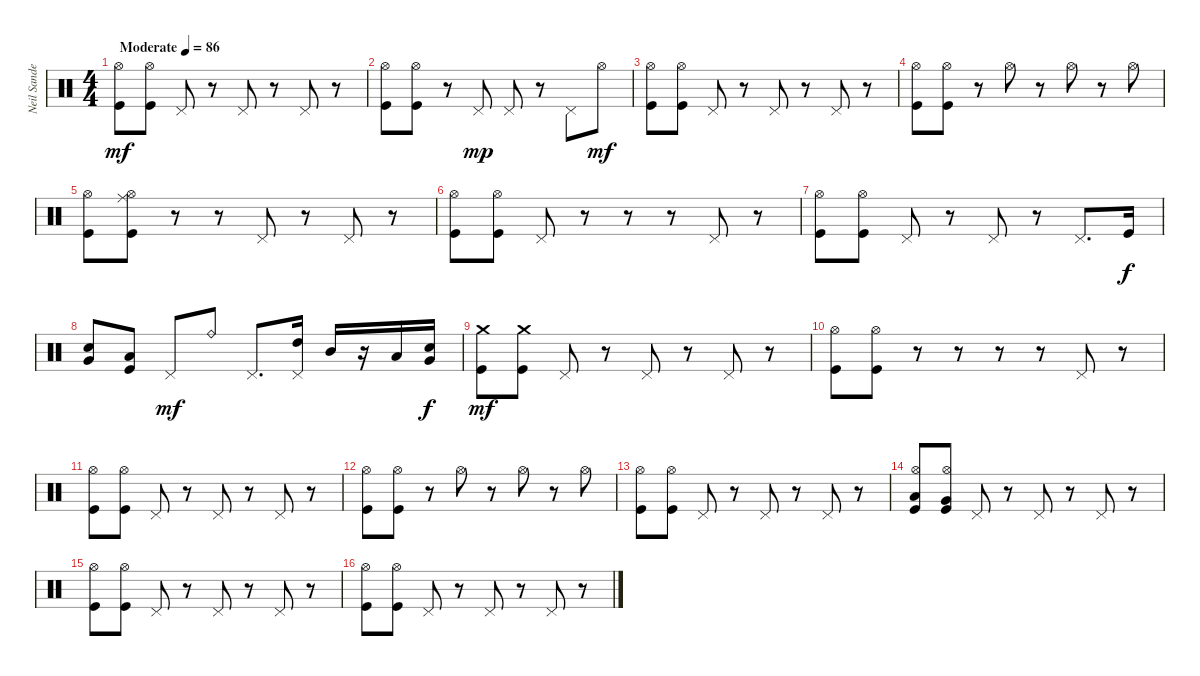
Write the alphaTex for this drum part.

\track ("Neil Sanderson" "Neil Sande") {instrument percussion}
\staff {score}
\articulation defaults
\ts (4 4)
\tempo (86 "Moderate")
\clef neutral
\ks c
("Kick (hit)" "Hi-Hat (open)").8{dy mf} ("Kick (hit)" "Hi-Hat (open)").8 "Pedal Hi-Hat (hit)".8 r.8 "Pedal Hi-Hat (hit)".8 r.8 "Pedal Hi-Hat (hit)".8 r.8 |
("Kick (hit)" "Hi-Hat (open)").8 ("Kick (hit)" "Hi-Hat (open)").8 r.8 "Pedal Hi-Hat (hit)".8{dy mp} "Pedal Hi-Hat (hit)".8 r.8 "Pedal Hi-Hat (hit)".8 "Hi-Hat (open)".8{dy mf} |
("Kick (hit)" "Hi-Hat (open)").8 ("Kick (hit)" "Hi-Hat (open)").8 "Pedal Hi-Hat (hit)".8 r.8 "Pedal Hi-Hat (hit)".8 r.8 "Pedal Hi-Hat (hit)".8 r.8 |
("Kick (hit)" "Hi-Hat (open)").8 ("Kick (hit)" "Hi-Hat (open)").8 r.8 "Hi-Hat (open)".8 r.8 "Hi-Hat (open)".8 r.8 "Hi-Hat (open)".8 |
("Kick (hit)" "Hi-Hat (open)").8 ("Kick (hit)" "Ride (middle)" "Hi-Hat (open)").8 r.8 r.8 "Pedal Hi-Hat (hit)".8 r.8 "Pedal Hi-Hat (hit)".8 r.8 |
("Kick (hit)" "Hi-Hat (open)").8 ("Kick (hit)" "Hi-Hat (open)").8 "Pedal Hi-Hat (hit)".8 r.8 r.8 r.8 "Pedal Hi-Hat (hit)".8 r.8 |
("Kick (hit)" "Hi-Hat (open)").8 ("Kick (hit)" "Hi-Hat (open)").8 "Pedal Hi-Hat (hit)".8 r.8 "Pedal Hi-Hat (hit)".8 r.8 "Pedal Hi-Hat (hit)".8{d} "Kick (hit)".16{dy f} |
("Snare (hit) 2" "Very Low Tom (hit)").8 ("Kick (hit)" "Low Floor Tom (hit)").8 "Pedal Hi-Hat (hit)".8{dy mf} "Ride (bell)".8 "Pedal Hi-Hat (hit)".8{d} ("High Tom (hit)" "Pedal Hi-Hat (hit)").16 "Mid Tom (hit)".16 r.16 "Low Tom (hit)".16 ("Snare (hit) 2" "Very Low Tom (hit)").16{dy f} |
("Kick (hit)" "Crash medium (hit)").8{dy mf} ("Kick (hit)" "Crash medium (hit)").8 "Pedal Hi-Hat (hit)".8 r.8 "Pedal Hi-Hat (hit)".8 r.8 "Pedal Hi-Hat (hit)".8 r.8 |
("Kick (hit)" "Hi-Hat (open)").8 ("Kick (hit)" "Hi-Hat (open)").8 r.8 r.8 r.8 r.8 "Pedal Hi-Hat (hit)".8 r.8 |
("Kick (hit)" "Hi-Hat (open)").8 ("Kick (hit)" "Hi-Hat (open)").8 "Pedal Hi-Hat (hit)".8 r.8 "Pedal Hi-Hat (hit)".8 r.8 "Pedal Hi-Hat (hit)".8 r.8 |
("Kick (hit)" "Hi-Hat (open)").8 ("Kick (hit)" "Hi-Hat (open)").8 r.8 "Hi-Hat (open)".8 r.8 "Hi-Hat (open)".8 r.8 "Hi-Hat (open)".8 |
("Kick (hit)" "Hi-Hat (open)").8 ("Kick (hit)" "Hi-Hat (open)").8 "Pedal Hi-Hat (hit)".8 r.8 "Pedal Hi-Hat (hit)".8 r.8 "Pedal Hi-Hat (hit)".8 r.8 |
("Low Tom (hit)" "Kick (hit)" "Hi-Hat (open)").8 ("Very Low Tom (hit)" "Kick (hit)" "Hi-Hat (open)").8 "Pedal Hi-Hat (hit)".8 r.8 "Pedal Hi-Hat (hit)".8 r.8 "Pedal Hi-Hat (hit)".8 r.8 |
("Kick (hit)" "Hi-Hat (open)").8 ("Kick (hit)" "Hi-Hat (open)").8 "Pedal Hi-Hat (hit)".8 r.8 "Pedal Hi-Hat (hit)".8 r.8 "Pedal Hi-Hat (hit)".8 r.8 |
("Kick (hit)" "Hi-Hat (open)").8 ("Kick (hit)" "Hi-Hat (open)").8 "Pedal Hi-Hat (hit)".8 r.8 "Pedal Hi-Hat (hit)".8 r.8 "Pedal Hi-Hat (hit)".8 r.8
